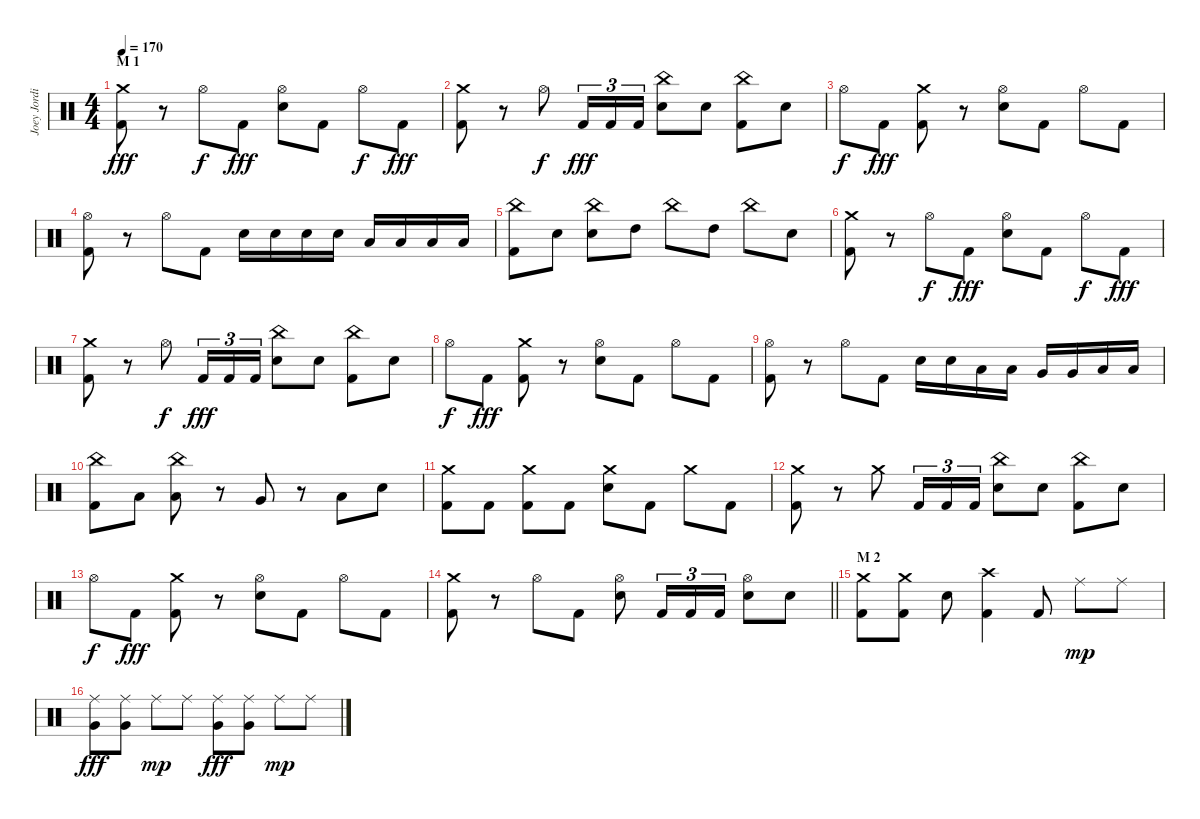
\track ("Joey Jordison" "Joey Jordi") {instrument percussion}
\staff {score}
\articulation defaults
\ts (4 4)
\section ("" "M 1")
\tempo 170
\clef neutral
\ks c
("Crash medium (hit)" "Kick (hit) 2").8{dy fff} r.8 "Hi-Hat (open)".8{dy f} "Kick (hit) 2".8{dy fff} ("Hi-Hat (open)" "Electric Snare (hit)").8 "Kick (hit) 2".8 "Hi-Hat (open)".8{dy f} "Kick (hit) 2".8{dy fff} |
("Crash medium (hit)" "Kick (hit) 2").8 r.8 "Hi-Hat (open)".8{dy f} "Kick (hit) 2".16{tu (3 2) dy fff} "Kick (hit) 2".16{tu (3 2)} "Kick (hit) 2".16{tu (3 2)} ("China (hit)" "Electric Snare (hit)").8 "Electric Snare (hit)".8 ("China (hit)" "Kick (hit) 2").8 "Electric Snare (hit)".8 |
"Hi-Hat (open)".8{dy f} "Kick (hit) 2".8{dy fff} ("Crash medium (hit)" "Kick (hit) 2").8 r.8 ("Hi-Hat (open)" "Electric Snare (hit)").8 "Kick (hit) 2".8 "Hi-Hat (open)".8 "Kick (hit) 2".8 |
("Hi-Hat (open)" "Kick (hit) 2").8 r.8 "Hi-Hat (open)".8 "Kick (hit) 2".8 "Electric Snare (hit)".16 "Electric Snare (hit)".16 "Electric Snare (hit)".16 "Electric Snare (hit)".16 "Low Tom (hit)".16 "Low Tom (hit)".16 "Low Tom (hit)".16 "Low Tom (hit)".16 |
("China (hit)" "Kick (hit) 2").8 "Electric Snare (hit)".8 ("China (hit)" "Electric Snare (hit)").8 "High Tom (hit)".8 "China (hit)".8 "High Tom (hit)".8 "China (hit)".8 "Electric Snare (hit)".8 |
("Crash medium (hit)" "Kick (hit) 2").8 r.8 "Hi-Hat (open)".8{dy f} "Kick (hit) 2".8{dy fff} ("Hi-Hat (open)" "Electric Snare (hit)").8 "Kick (hit) 2".8 "Hi-Hat (open)".8{dy f} "Kick (hit) 2".8{dy fff} |
("Crash medium (hit)" "Kick (hit) 2").8 r.8 "Hi-Hat (open)".8{dy f} "Kick (hit) 2".16{tu (3 2) dy fff} "Kick (hit) 2".16{tu (3 2)} "Kick (hit) 2".16{tu (3 2)} ("China (hit)" "Electric Snare (hit)").8 "Electric Snare (hit)".8 ("China (hit)" "Kick (hit) 2").8 "Electric Snare (hit)".8 |
"Hi-Hat (open)".8{dy f} "Kick (hit) 2".8{dy fff} ("Crash medium (hit)" "Kick (hit) 2").8 r.8 ("Hi-Hat (open)" "Electric Snare (hit)").8 "Kick (hit) 2".8 "Hi-Hat (open)".8 "Kick (hit) 2".8 |
("Hi-Hat (open)" "Kick (hit) 2").8 r.8 "Hi-Hat (open)".8 "Kick (hit) 2".8 "Electric Snare (hit)".16 "Electric Snare (hit)".16 "Low Tom (hit)".16 "Low Tom (hit)".16 "Very Low Tom (hit)".16 "Very Low Tom (hit)".16 "Low Floor Tom (hit)".16 "Low Floor Tom (hit)".16 |
("China (hit)" "Kick (hit) 2").8 "Low Tom (hit)".8 ("China (hit)" "Low Tom (hit)").8 r.8 "Very Low Tom (hit)".8 r.8 "Low Floor Tom (hit)".8 "Electric Snare (hit)".8 |
("Crash medium (hit)" "Kick (hit) 2").8 "Kick (hit) 2".8 ("Crash medium (hit)" "Kick (hit) 2").8 "Kick (hit) 2".8 ("Crash medium (hit)" "Electric Snare (hit)").8 "Kick (hit) 2".8 "Crash medium (hit)".8 "Kick (hit) 2".8 |
("Crash medium (hit)" "Kick (hit) 2").8 r.8 "Crash medium (hit)".8 "Kick (hit) 2".16{tu (3 2)} "Kick (hit) 2".16{tu (3 2)} "Kick (hit) 2".16{tu (3 2)} ("China (hit)" "Electric Snare (hit)").8 "Electric Snare (hit)".8 ("China (hit)" "Kick (hit) 2").8 "Electric Snare (hit)".8 |
"Hi-Hat (open)".8{dy f} "Kick (hit) 2".8{dy fff} ("Crash medium (hit)" "Kick (hit) 2").8 r.8 ("Hi-Hat (open)" "Electric Snare (hit)").8 "Kick (hit) 2".8 "Hi-Hat (open)".8 "Kick (hit) 2".8 |
\barLineRight lightlight
("Crash medium (hit)" "Kick (hit) 2").8 r.8 "Hi-Hat (open)".8 "Kick (hit) 2".8 ("Hi-Hat (open)" "Electric Snare (hit)").8 "Kick (hit) 2".16{tu (3 2)} "Kick (hit) 2".16{tu (3 2)} "Kick (hit) 2".16{tu (3 2)} ("Hi-Hat (open)" "Electric Snare (hit)").8 "Electric Snare (hit)".8 |
\section ("" "M 2")
("Crash medium (hit)" "Kick (hit) 2").8 ("Crash medium (hit)" "Kick (hit) 2").8 "Electric Snare (hit)".8 ("Crash high (hit)" "Kick (hit) 2").4 "Kick (hit) 2".8 "Ride (middle)".8{dy mp} "Ride (middle)".8 |
("Ride (middle)" "Very Low Tom (hit)").8{dy fff} ("Ride (middle)" "Very Low Tom (hit)").8 "Ride (middle)".8{dy mp} "Ride (middle)".8 ("Ride (middle)" "Very Low Tom (hit)").8{dy fff} ("Ride (middle)" "Very Low Tom (hit)").8 "Ride (middle)".8{dy mp} "Ride (middle)".8
